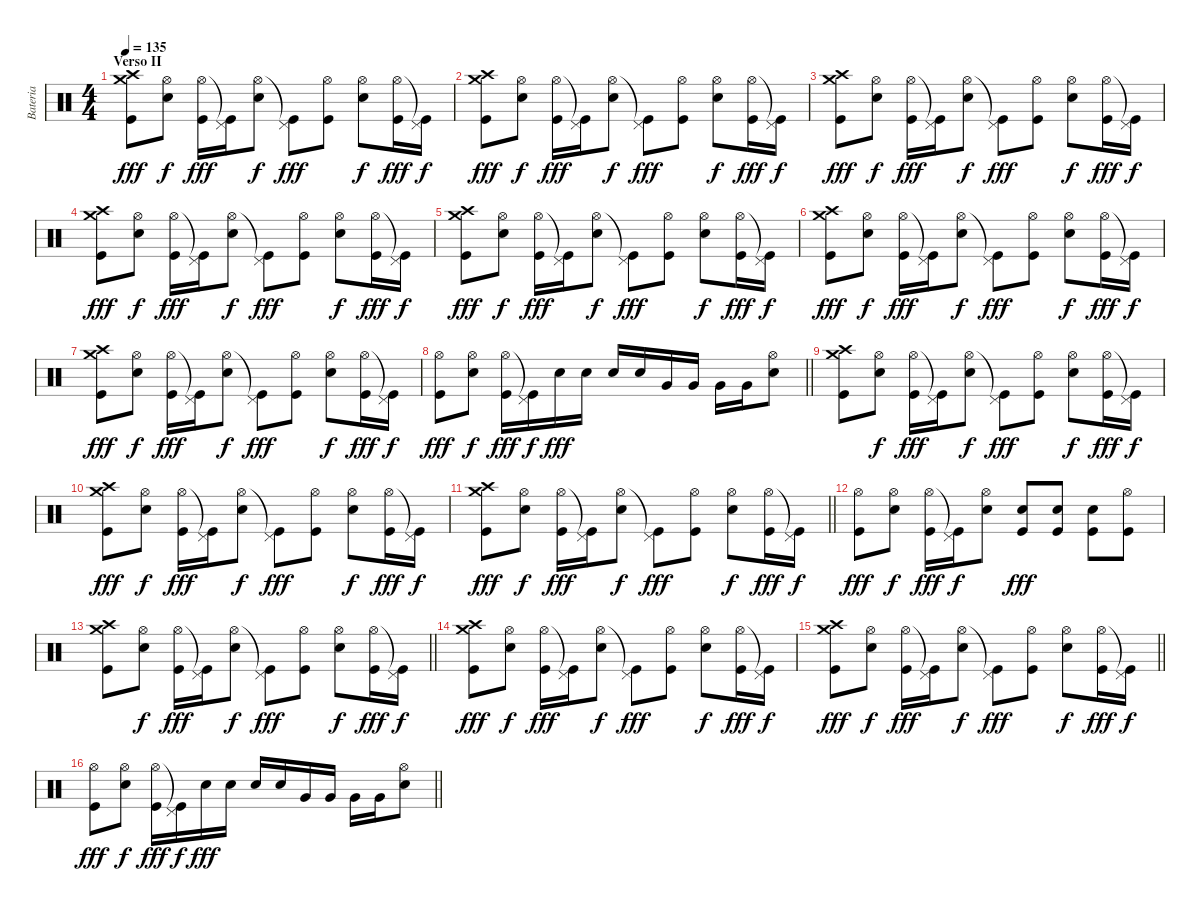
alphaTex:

\track ("Bateria" "Bateria") {instrument percussion}
\staff {score}
\articulation defaults
\ts (4 4)
\section ("" "Verso II")
\tempo 135
\clef neutral
\ks c
("Crash high (hit)" "Crash medium (hit)" "Kick (hit)").8{dy fff} ("Hi-Hat (open)" "Electric Snare (hit)").8{dy f} ("Hi-Hat (open)" "Kick (hit)").16{dy fff} ("Pedal Hi-Hat (hit)"{t} "Kick (hit)").16 ("Hi-Hat (open)" "Electric Snare (hit)").8{dy f} ("Pedal Hi-Hat (hit)"{t} "Kick (hit)").8{dy fff} ("Hi-Hat (open)" "Kick (hit)").8 ("Hi-Hat (open)" "Electric Snare (hit)").8{dy f} ("Hi-Hat (open)" "Kick (hit)").16{dy fff} ("Pedal Hi-Hat (hit)"{t} "Kick (hit)").16{dy f} |
("Crash high (hit)" "Crash medium (hit)" "Kick (hit)").8{dy fff} ("Hi-Hat (open)" "Electric Snare (hit)").8{dy f} ("Hi-Hat (open)" "Kick (hit)").16{dy fff} ("Pedal Hi-Hat (hit)"{t} "Kick (hit)").16 ("Hi-Hat (open)" "Electric Snare (hit)").8{dy f} ("Pedal Hi-Hat (hit)"{t} "Kick (hit)").8{dy fff} ("Hi-Hat (open)" "Kick (hit)").8 ("Hi-Hat (open)" "Electric Snare (hit)").8{dy f} ("Hi-Hat (open)" "Kick (hit)").16{dy fff} ("Pedal Hi-Hat (hit)"{t} "Kick (hit)").16{dy f} |
("Crash high (hit)" "Crash medium (hit)" "Kick (hit)").8{dy fff} ("Hi-Hat (open)" "Electric Snare (hit)").8{dy f} ("Hi-Hat (open)" "Kick (hit)").16{dy fff} ("Pedal Hi-Hat (hit)"{t} "Kick (hit)").16 ("Hi-Hat (open)" "Electric Snare (hit)").8{dy f} ("Pedal Hi-Hat (hit)"{t} "Kick (hit)").8{dy fff} ("Hi-Hat (open)" "Kick (hit)").8 ("Hi-Hat (open)" "Electric Snare (hit)").8{dy f} ("Hi-Hat (open)" "Kick (hit)").16{dy fff} ("Pedal Hi-Hat (hit)"{t} "Kick (hit)").16{dy f} |
("Crash high (hit)" "Crash medium (hit)" "Kick (hit)").8{dy fff} ("Hi-Hat (open)" "Electric Snare (hit)").8{dy f} ("Hi-Hat (open)" "Kick (hit)").16{dy fff} ("Pedal Hi-Hat (hit)"{t} "Kick (hit)").16 ("Hi-Hat (open)" "Electric Snare (hit)").8{dy f} ("Pedal Hi-Hat (hit)"{t} "Kick (hit)").8{dy fff} ("Hi-Hat (open)" "Kick (hit)").8 ("Hi-Hat (open)" "Electric Snare (hit)").8{dy f} ("Hi-Hat (open)" "Kick (hit)").16{dy fff} ("Pedal Hi-Hat (hit)"{t} "Kick (hit)").16{dy f} |
("Crash high (hit)" "Crash medium (hit)" "Kick (hit)").8{dy fff} ("Hi-Hat (open)" "Electric Snare (hit)").8{dy f} ("Hi-Hat (open)" "Kick (hit)").16{dy fff} ("Pedal Hi-Hat (hit)"{t} "Kick (hit)").16 ("Hi-Hat (open)" "Electric Snare (hit)").8{dy f} ("Pedal Hi-Hat (hit)"{t} "Kick (hit)").8{dy fff} ("Hi-Hat (open)" "Kick (hit)").8 ("Hi-Hat (open)" "Electric Snare (hit)").8{dy f} ("Hi-Hat (open)" "Kick (hit)").16{dy fff} ("Pedal Hi-Hat (hit)"{t} "Kick (hit)").16{dy f} |
("Crash high (hit)" "Crash medium (hit)" "Kick (hit)").8{dy fff} ("Hi-Hat (open)" "Electric Snare (hit)").8{dy f} ("Hi-Hat (open)" "Kick (hit)").16{dy fff} ("Pedal Hi-Hat (hit)"{t} "Kick (hit)").16 ("Hi-Hat (open)" "Electric Snare (hit)").8{dy f} ("Pedal Hi-Hat (hit)"{t} "Kick (hit)").8{dy fff} ("Hi-Hat (open)" "Kick (hit)").8 ("Hi-Hat (open)" "Electric Snare (hit)").8{dy f} ("Hi-Hat (open)" "Kick (hit)").16{dy fff} ("Pedal Hi-Hat (hit)"{t} "Kick (hit)").16{dy f} |
("Crash high (hit)" "Crash medium (hit)" "Kick (hit)").8{dy fff} ("Hi-Hat (open)" "Electric Snare (hit)").8{dy f} ("Hi-Hat (open)" "Kick (hit)").16{dy fff} ("Pedal Hi-Hat (hit)"{t} "Kick (hit)").16 ("Hi-Hat (open)" "Electric Snare (hit)").8{dy f} ("Pedal Hi-Hat (hit)"{t} "Kick (hit)").8{dy fff} ("Hi-Hat (open)" "Kick (hit)").8 ("Hi-Hat (open)" "Electric Snare (hit)").8{dy f} ("Hi-Hat (open)" "Kick (hit)").16{dy fff} ("Pedal Hi-Hat (hit)"{t} "Kick (hit)").16{dy f} |
\barLineRight lightlight
("Hi-Hat (open)" "Kick (hit)").8{dy fff} ("Hi-Hat (open)" "Electric Snare (hit)").8{dy f} ("Hi-Hat (open)" "Kick (hit)").16{dy fff} ("Pedal Hi-Hat (hit)"{t} "Kick (hit)").16{dy f} "Electric Snare (hit)".16{dy fff} "Electric Snare (hit)".16 "Electric Snare (hit)".16 "Electric Snare (hit)".16 "Very Low Tom (hit)".16 "Very Low Tom (hit)".16 "Very Low Tom (hit)".16 "Very Low Tom (hit)".16 ("Hi-Hat (open)" "Electric Snare (hit)").8 |
\section ("" "")
("Crash high (hit)" "Crash medium (hit)" "Kick (hit)").8 ("Hi-Hat (open)" "Electric Snare (hit)").8{dy f} ("Hi-Hat (open)" "Kick (hit)").16{dy fff} ("Pedal Hi-Hat (hit)"{t} "Kick (hit)").16 ("Hi-Hat (open)" "Electric Snare (hit)").8{dy f} ("Pedal Hi-Hat (hit)"{t} "Kick (hit)").8{dy fff} ("Hi-Hat (open)" "Kick (hit)").8 ("Hi-Hat (open)" "Electric Snare (hit)").8{dy f} ("Hi-Hat (open)" "Kick (hit)").16{dy fff} ("Pedal Hi-Hat (hit)"{t} "Kick (hit)").16{dy f} |
("Crash high (hit)" "Crash medium (hit)" "Kick (hit)").8{dy fff} ("Hi-Hat (open)" "Electric Snare (hit)").8{dy f} ("Hi-Hat (open)" "Kick (hit)").16{dy fff} ("Pedal Hi-Hat (hit)"{t} "Kick (hit)").16 ("Hi-Hat (open)" "Electric Snare (hit)").8{dy f} ("Pedal Hi-Hat (hit)"{t} "Kick (hit)").8{dy fff} ("Hi-Hat (open)" "Kick (hit)").8 ("Hi-Hat (open)" "Electric Snare (hit)").8{dy f} ("Hi-Hat (open)" "Kick (hit)").16{dy fff} ("Pedal Hi-Hat (hit)"{t} "Kick (hit)").16{dy f} |
\barLineRight lightlight
("Crash high (hit)" "Crash medium (hit)" "Kick (hit)").8{dy fff} ("Hi-Hat (open)" "Electric Snare (hit)").8{dy f} ("Hi-Hat (open)" "Kick (hit)").16{dy fff} ("Pedal Hi-Hat (hit)"{t} "Kick (hit)").16 ("Hi-Hat (open)" "Electric Snare (hit)").8{dy f} ("Pedal Hi-Hat (hit)"{t} "Kick (hit)").8{dy fff} ("Hi-Hat (open)" "Kick (hit)").8 ("Hi-Hat (open)" "Electric Snare (hit)").8{dy f} ("Hi-Hat (open)" "Kick (hit)").16{dy fff} ("Pedal Hi-Hat (hit)"{t} "Kick (hit)").16{dy f} |
("Hi-Hat (open)" "Kick (hit)").8{dy fff} ("Hi-Hat (open)" "Electric Snare (hit)").8{dy f} ("Hi-Hat (open)" "Kick (hit)").16{dy fff} ("Pedal Hi-Hat (hit)"{t} "Kick (hit)").16{dy f} ("Hi-Hat (open)" "Electric Snare (hit)").8 ("Electric Snare (hit)" "Kick (hit)").8{dy fff} ("Electric Snare (hit)" "Kick (hit)").8 ("Electric Snare (hit)" "Kick (hit)").8 ("Hi-Hat (open)" "Kick (hit)").8 |
\barLineRight lightlight
("Crash high (hit)" "Crash medium (hit)" "Kick (hit)").8 ("Hi-Hat (open)" "Electric Snare (hit)").8{dy f} ("Hi-Hat (open)" "Kick (hit)").16{dy fff} ("Pedal Hi-Hat (hit)"{t} "Kick (hit)").16 ("Hi-Hat (open)" "Electric Snare (hit)").8{dy f} ("Pedal Hi-Hat (hit)"{t} "Kick (hit)").8{dy fff} ("Hi-Hat (open)" "Kick (hit)").8 ("Hi-Hat (open)" "Electric Snare (hit)").8{dy f} ("Hi-Hat (open)" "Kick (hit)").16{dy fff} ("Pedal Hi-Hat (hit)"{t} "Kick (hit)").16{dy f} |
\section ("" "")
("Crash high (hit)" "Crash medium (hit)" "Kick (hit)").8{dy fff} ("Hi-Hat (open)" "Electric Snare (hit)").8{dy f} ("Hi-Hat (open)" "Kick (hit)").16{dy fff} ("Pedal Hi-Hat (hit)"{t} "Kick (hit)").16 ("Hi-Hat (open)" "Electric Snare (hit)").8{dy f} ("Pedal Hi-Hat (hit)"{t} "Kick (hit)").8{dy fff} ("Hi-Hat (open)" "Kick (hit)").8 ("Hi-Hat (open)" "Electric Snare (hit)").8{dy f} ("Hi-Hat (open)" "Kick (hit)").16{dy fff} ("Pedal Hi-Hat (hit)"{t} "Kick (hit)").16{dy f} |
\barLineRight lightlight
("Crash high (hit)" "Crash medium (hit)" "Kick (hit)").8{dy fff} ("Hi-Hat (open)" "Electric Snare (hit)").8{dy f} ("Hi-Hat (open)" "Kick (hit)").16{dy fff} ("Pedal Hi-Hat (hit)"{t} "Kick (hit)").16 ("Hi-Hat (open)" "Electric Snare (hit)").8{dy f} ("Pedal Hi-Hat (hit)"{t} "Kick (hit)").8{dy fff} ("Hi-Hat (open)" "Kick (hit)").8 ("Hi-Hat (open)" "Electric Snare (hit)").8{dy f} ("Hi-Hat (open)" "Kick (hit)").16{dy fff} ("Pedal Hi-Hat (hit)"{t} "Kick (hit)").16{dy f} |
\barLineRight lightlight
("Hi-Hat (open)" "Kick (hit)").8{dy fff} ("Hi-Hat (open)" "Electric Snare (hit)").8{dy f} ("Hi-Hat (open)" "Kick (hit)").16{dy fff} ("Pedal Hi-Hat (hit)"{t} "Kick (hit)").16{dy f} "Electric Snare (hit)".16{dy fff} "Electric Snare (hit)".16 "Electric Snare (hit)".16 "Electric Snare (hit)".16 "Very Low Tom (hit)".16 "Very Low Tom (hit)".16 "Very Low Tom (hit)".16 "Very Low Tom (hit)".16 ("Hi-Hat (open)" "Electric Snare (hit)").8
